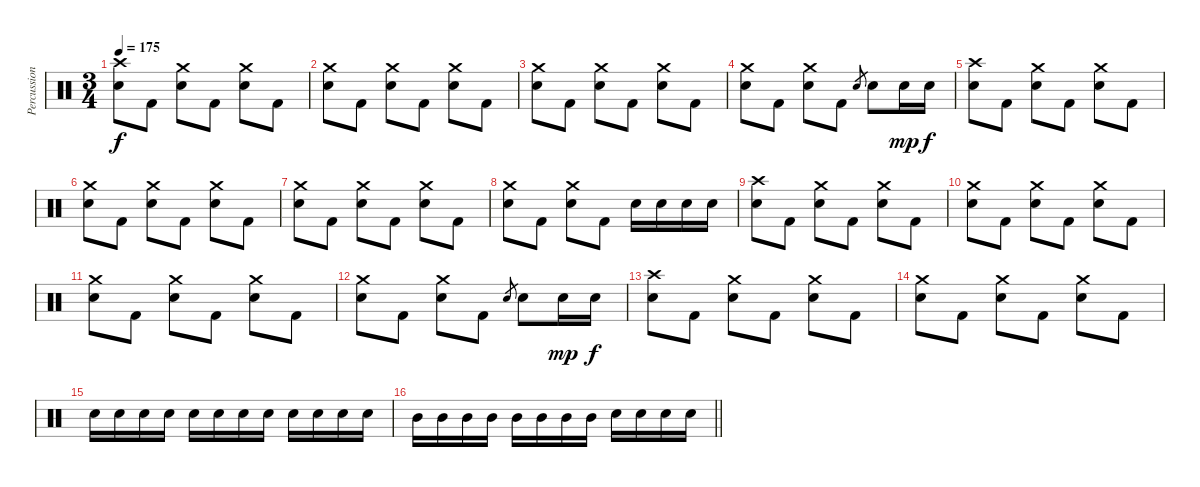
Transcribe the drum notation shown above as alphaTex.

\track ("Percussion" "Percussion") {instrument percussion}
\staff {score}
\articulation defaults
\ts (3 4)
\tempo 175
\clef neutral
\ks c
("Crash high (hit)" "Electric Snare (hit)").8{dy f} "Kick (hit) 2".8 ("Crash medium (hit)" "Electric Snare (hit)").8 "Kick (hit) 2".8 ("Crash medium (hit)" "Electric Snare (hit)").8 "Kick (hit) 2".8 |
("Crash medium (hit)" "Electric Snare (hit)").8 "Kick (hit) 2".8 ("Crash medium (hit)" "Electric Snare (hit)").8 "Kick (hit) 2".8 ("Crash medium (hit)" "Electric Snare (hit)").8 "Kick (hit) 2".8 |
("Crash medium (hit)" "Electric Snare (hit)").8 "Kick (hit) 2".8 ("Crash medium (hit)" "Electric Snare (hit)").8 "Kick (hit) 2".8 ("Crash medium (hit)" "Electric Snare (hit)").8 "Kick (hit) 2".8 |
("Crash medium (hit)" "Electric Snare (hit)").8 "Kick (hit) 2".8 ("Crash medium (hit)" "Electric Snare (hit)").8 "Kick (hit) 2".8 "Electric Snare (hit)".8{gr} "Electric Snare (hit)".8 "Electric Snare (hit)".16{dy mp} "Electric Snare (hit)".16{dy f} |
("Crash high (hit)" "Electric Snare (hit)").8 "Kick (hit) 2".8 ("Crash medium (hit)" "Electric Snare (hit)").8 "Kick (hit) 2".8 ("Crash medium (hit)" "Electric Snare (hit)").8 "Kick (hit) 2".8 |
("Crash medium (hit)" "Electric Snare (hit)").8 "Kick (hit) 2".8 ("Crash medium (hit)" "Electric Snare (hit)").8 "Kick (hit) 2".8 ("Crash medium (hit)" "Electric Snare (hit)").8 "Kick (hit) 2".8 |
("Crash medium (hit)" "Electric Snare (hit)").8 "Kick (hit) 2".8 ("Crash medium (hit)" "Electric Snare (hit)").8 "Kick (hit) 2".8 ("Crash medium (hit)" "Electric Snare (hit)").8 "Kick (hit) 2".8 |
("Crash medium (hit)" "Electric Snare (hit)").8 "Kick (hit) 2".8 ("Crash medium (hit)" "Electric Snare (hit)").8 "Kick (hit) 2".8 "Electric Snare (hit)".16 "Electric Snare (hit)".16 "Electric Snare (hit)".16 "Electric Snare (hit)".16 |
("Crash high (hit)" "Electric Snare (hit)").8 "Kick (hit) 2".8 ("Crash medium (hit)" "Electric Snare (hit)").8 "Kick (hit) 2".8 ("Crash medium (hit)" "Electric Snare (hit)").8 "Kick (hit) 2".8 |
("Crash medium (hit)" "Electric Snare (hit)").8 "Kick (hit) 2".8 ("Crash medium (hit)" "Electric Snare (hit)").8 "Kick (hit) 2".8 ("Crash medium (hit)" "Electric Snare (hit)").8 "Kick (hit) 2".8 |
("Crash medium (hit)" "Electric Snare (hit)").8 "Kick (hit) 2".8 ("Crash medium (hit)" "Electric Snare (hit)").8 "Kick (hit) 2".8 ("Crash medium (hit)" "Electric Snare (hit)").8 "Kick (hit) 2".8 |
("Crash medium (hit)" "Electric Snare (hit)").8 "Kick (hit) 2".8 ("Crash medium (hit)" "Electric Snare (hit)").8 "Kick (hit) 2".8 "Electric Snare (hit)".8{gr} "Electric Snare (hit)".8 "Electric Snare (hit)".16{dy mp} "Electric Snare (hit)".16{dy f} |
("Crash high (hit)" "Electric Snare (hit)").8 "Kick (hit) 2".8 ("Crash medium (hit)" "Electric Snare (hit)").8 "Kick (hit) 2".8 ("Crash medium (hit)" "Electric Snare (hit)").8 "Kick (hit) 2".8 |
("Crash medium (hit)" "Electric Snare (hit)").8 "Kick (hit) 2".8 ("Crash medium (hit)" "Electric Snare (hit)").8 "Kick (hit) 2".8 ("Crash medium (hit)" "Electric Snare (hit)").8 "Kick (hit) 2".8 |
"Electric Snare (hit)".16 "Electric Snare (hit)".16 "Electric Snare (hit)".16 "Electric Snare (hit)".16 "Electric Snare (hit)".16 "Electric Snare (hit)".16 "Electric Snare (hit)".16 "Electric Snare (hit)".16 "Electric Snare (hit)".16 "Electric Snare (hit)".16 "Electric Snare (hit)".16 "Electric Snare (hit)".16 |
\barLineRight lightlight "Mid Tom (hit)".16 "Mid Tom (hit)".16 "Mid Tom (hit)".16 "Mid Tom (hit)".16 "Mid Tom (hit)".16 "Mid Tom (hit)".16 "Mid Tom (hit)".16 "Mid Tom (hit)".16 "Electric Snare (hit)".16 "Electric Snare (hit)".16 "Electric Snare (hit)".16 "Electric Snare (hit)".16
